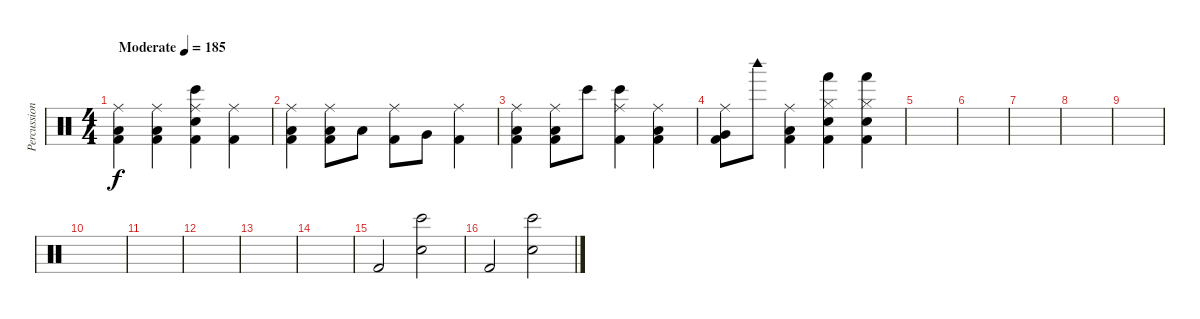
\track ("Percussion" "Percussion") {instrument percussion}
\staff {score}
\articulation defaults
\ts (4 4)
\tempo (185 "Moderate")
\clef neutral
\ks c
("Ride (middle)" "Low Floor Tom (hit)" "Kick (hit) 2").4{dy f} ("Ride (middle)" "Low Floor Tom (hit)" "Kick (hit) 2").4 ("Bongo High (hit)" "Electric Snare (hit)" "Ride (middle)" "Kick (hit) 2").4 ("Ride (middle)" "Kick (hit) 2").4 |
("Ride (middle)" "Low Floor Tom (hit)" "Kick (hit) 2").4 ("Ride (middle)" "Low Floor Tom (hit)" "Kick (hit) 2").8 "Low Tom (hit)".8 ("Ride (middle)" "Kick (hit) 2").8 "Very Low Tom (hit)".8 ("Ride (middle)" "Kick (hit) 2").4 |
("Ride (middle)" "Low Floor Tom (hit)" "Kick (hit) 2").4 ("Ride (middle)" "Low Floor Tom (hit)" "Kick (hit) 2").8 "Bongo High (hit)".8 ("Bongo High (hit)" "Ride (middle)" "Kick (hit) 2").4 ("Ride (middle)" "Low Floor Tom (hit)" "Kick (hit) 2").4 |
("Ride (middle)" "Very Low Tom (hit)" "Kick (hit) 2").8 "Woodblock high (hit)".8 ("Ride (middle)" "Low Floor Tom (hit)" "Kick (hit) 2").4 ("Hand (hit)" "Snare (hit) 2" "Hi-Hat (closed)" "Kick (hit) 2").4 ("Hand (hit)" "Snare (hit) 2" "Hi-Hat (closed)" "Kick (hit) 2").4 |
|
|
|
|
|
|
|
|
|
|
"Kick (hit) 2".2 ("Bongo High (hit)" "Electric Snare (hit)").2 |
"Kick (hit) 2".2 ("Bongo High (hit)" "Electric Snare (hit)").2
